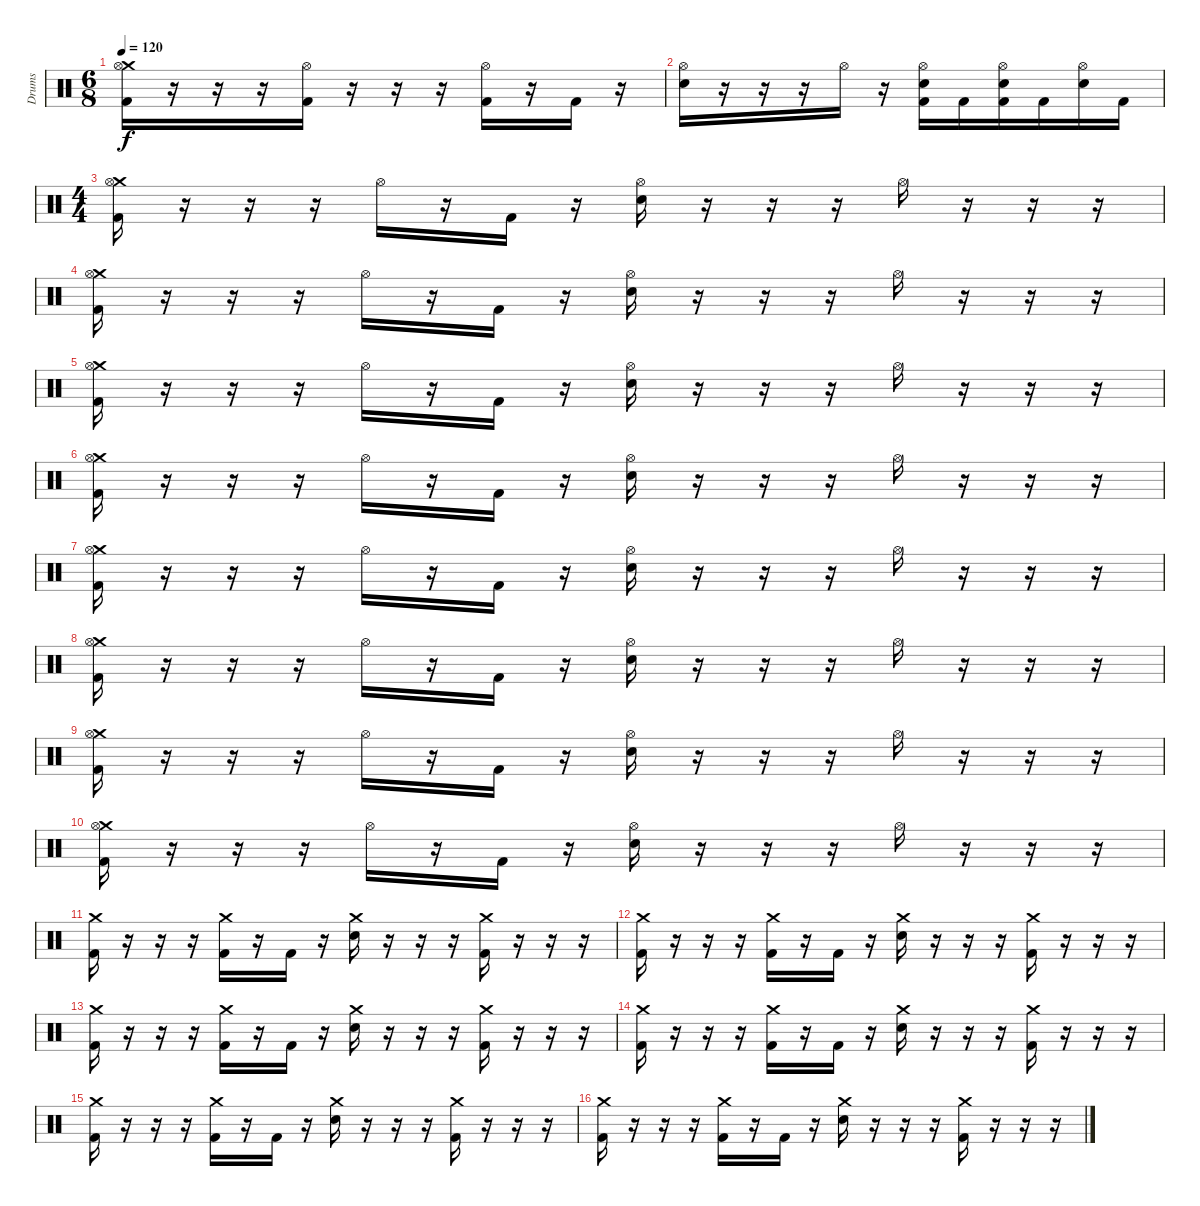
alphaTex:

\track ("Drums" "Drums") {instrument percussion}
\staff {score}
\articulation defaults
\ts (6 8)
\tempo 120
\clef neutral
\ks c
("Crash medium (hit)" "Hi-Hat (open)" "Kick (hit) 2").16{dy f} r.16 r.16 r.16 ("Hi-Hat (open)" "Kick (hit) 2").16 r.16 r.16 r.16 ("Hi-Hat (open)" "Kick (hit) 2").16 r.16 "Kick (hit) 2".16 r.16 |
("Hi-Hat (open)" "Electric Snare (hit)").16 r.16 r.16 r.16 "Hi-Hat (open)".16 r.16 ("Hi-Hat (open)" "Electric Snare (hit)" "Kick (hit) 2").16 "Kick (hit) 2".16 ("Hi-Hat (open)" "Electric Snare (hit)" "Kick (hit) 2").16 "Kick (hit) 2".16 ("Hi-Hat (open)" "Electric Snare (hit)").16 "Kick (hit) 2".16 |
\ts (4 4)
("Crash medium (hit)" "Hi-Hat (open)" "Kick (hit) 2").16 r.16 r.16 r.16 "Hi-Hat (open)".16 r.16 "Kick (hit) 2".16 r.16 ("Hi-Hat (open)" "Electric Snare (hit)").16 r.16 r.16 r.16 "Hi-Hat (open)".16 r.16 r.16 r.16 |
("Crash medium (hit)" "Hi-Hat (open)" "Kick (hit) 2").16 r.16 r.16 r.16 "Hi-Hat (open)".16 r.16 "Kick (hit) 2".16 r.16 ("Hi-Hat (open)" "Electric Snare (hit)").16 r.16 r.16 r.16 "Hi-Hat (open)".16 r.16 r.16 r.16 |
("Crash medium (hit)" "Hi-Hat (open)" "Kick (hit) 2").16 r.16 r.16 r.16 "Hi-Hat (open)".16 r.16 "Kick (hit) 2".16 r.16 ("Hi-Hat (open)" "Electric Snare (hit)").16 r.16 r.16 r.16 "Hi-Hat (open)".16 r.16 r.16 r.16 |
("Crash medium (hit)" "Hi-Hat (open)" "Kick (hit) 2").16 r.16 r.16 r.16 "Hi-Hat (open)".16 r.16 "Kick (hit) 2".16 r.16 ("Hi-Hat (open)" "Electric Snare (hit)").16 r.16 r.16 r.16 "Hi-Hat (open)".16 r.16 r.16 r.16 |
("Crash medium (hit)" "Hi-Hat (open)" "Kick (hit) 2").16 r.16 r.16 r.16 "Hi-Hat (open)".16 r.16 "Kick (hit) 2".16 r.16 ("Hi-Hat (open)" "Electric Snare (hit)").16 r.16 r.16 r.16 "Hi-Hat (open)".16 r.16 r.16 r.16 |
("Crash medium (hit)" "Hi-Hat (open)" "Kick (hit) 2").16 r.16 r.16 r.16 "Hi-Hat (open)".16 r.16 "Kick (hit) 2".16 r.16 ("Hi-Hat (open)" "Electric Snare (hit)").16 r.16 r.16 r.16 "Hi-Hat (open)".16 r.16 r.16 r.16 |
("Crash medium (hit)" "Hi-Hat (open)" "Kick (hit) 2").16 r.16 r.16 r.16 "Hi-Hat (open)".16 r.16 "Kick (hit) 2".16 r.16 ("Hi-Hat (open)" "Electric Snare (hit)").16 r.16 r.16 r.16 "Hi-Hat (open)".16 r.16 r.16 r.16 |
("Crash medium (hit)" "Hi-Hat (open)" "Kick (hit) 2").16 r.16 r.16 r.16 "Hi-Hat (open)".16 r.16 "Kick (hit) 2".16 r.16 ("Hi-Hat (open)" "Electric Snare (hit)").16 r.16 r.16 r.16 "Hi-Hat (open)".16 r.16 r.16 r.16 |
("Crash medium (hit)" "Kick (hit) 2").16 r.16 r.16 r.16 ("Crash medium (hit)" "Kick (hit) 2").16 r.16 "Kick (hit) 2".16 r.16 ("Crash medium (hit)" "Electric Snare (hit)").16 r.16 r.16 r.16 ("Crash medium (hit)" "Kick (hit) 2").16 r.16 r.16 r.16 |
("Crash medium (hit)" "Kick (hit) 2").16 r.16 r.16 r.16 ("Crash medium (hit)" "Kick (hit) 2").16 r.16 "Kick (hit) 2".16 r.16 ("Crash medium (hit)" "Electric Snare (hit)").16 r.16 r.16 r.16 ("Crash medium (hit)" "Kick (hit) 2").16 r.16 r.16 r.16 |
("Crash medium (hit)" "Kick (hit) 2").16 r.16 r.16 r.16 ("Crash medium (hit)" "Kick (hit) 2").16 r.16 "Kick (hit) 2".16 r.16 ("Crash medium (hit)" "Electric Snare (hit)").16 r.16 r.16 r.16 ("Crash medium (hit)" "Kick (hit) 2").16 r.16 r.16 r.16 |
("Crash medium (hit)" "Kick (hit) 2").16 r.16 r.16 r.16 ("Crash medium (hit)" "Kick (hit) 2").16 r.16 "Kick (hit) 2".16 r.16 ("Crash medium (hit)" "Electric Snare (hit)").16 r.16 r.16 r.16 ("Crash medium (hit)" "Kick (hit) 2").16 r.16 r.16 r.16 |
("Crash medium (hit)" "Kick (hit) 2").16 r.16 r.16 r.16 ("Crash medium (hit)" "Kick (hit) 2").16 r.16 "Kick (hit) 2".16 r.16 ("Crash medium (hit)" "Electric Snare (hit)").16 r.16 r.16 r.16 ("Crash medium (hit)" "Kick (hit) 2").16 r.16 r.16 r.16 |
("Crash medium (hit)" "Kick (hit) 2").16 r.16 r.16 r.16 ("Crash medium (hit)" "Kick (hit) 2").16 r.16 "Kick (hit) 2".16 r.16 ("Crash medium (hit)" "Electric Snare (hit)").16 r.16 r.16 r.16 ("Crash medium (hit)" "Kick (hit) 2").16 r.16 r.16 r.16
